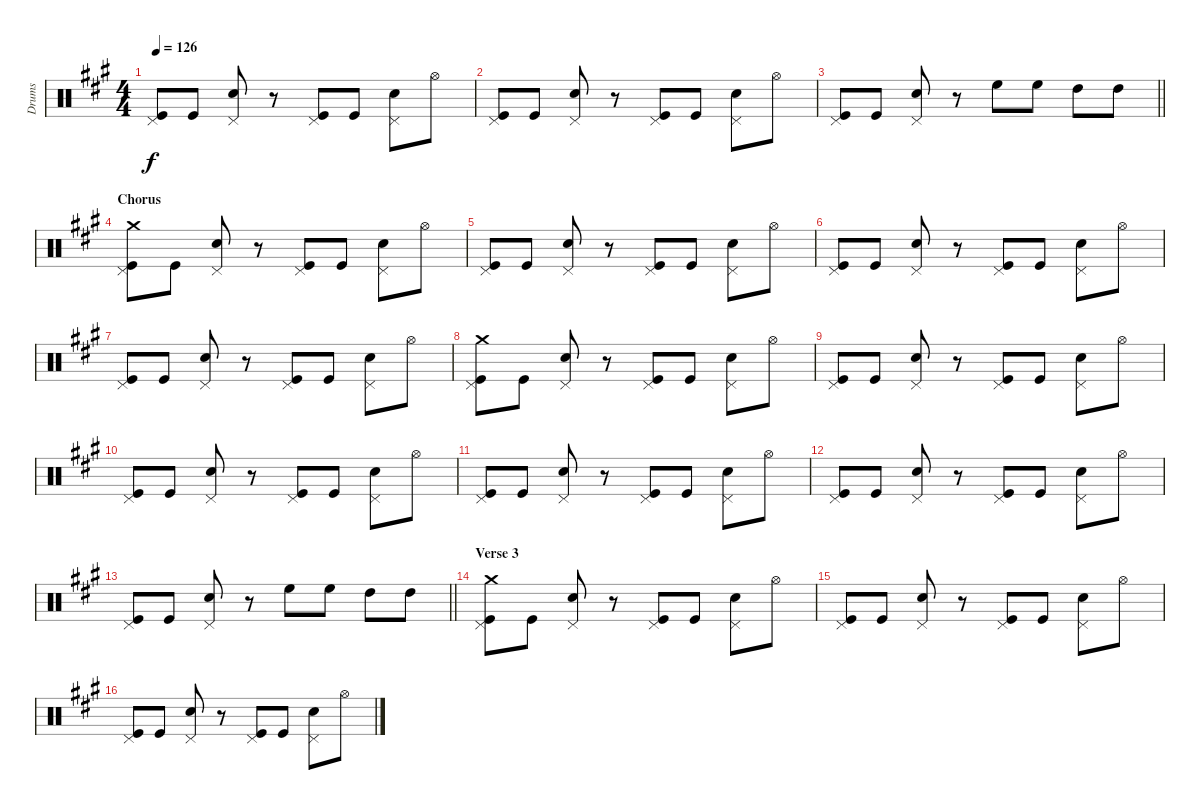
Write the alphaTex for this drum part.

\track ("Drums" "Drums") {instrument percussion}
\staff {score}
\articulation defaults
\ts (4 4)
\tempo 126
\clef neutral
\ks a
("Pedal Hi-Hat (hit)" "Kick (hit)").8{dy f} "Kick (hit)".8 ("Pedal Hi-Hat (hit)" "Snare (hit) 2").8 r.8 ("Pedal Hi-Hat (hit)" "Kick (hit)").8 "Kick (hit)".8 ("Pedal Hi-Hat (hit)" "Snare (hit) 2").8 "Hi-Hat (open)".8 |
("Pedal Hi-Hat (hit)" "Kick (hit)").8 "Kick (hit)".8 ("Pedal Hi-Hat (hit)" "Snare (hit) 2").8 r.8 ("Pedal Hi-Hat (hit)" "Kick (hit)").8 "Kick (hit)".8 ("Pedal Hi-Hat (hit)" "Snare (hit) 2").8 "Hi-Hat (open)".8 |
\barLineRight lightlight
("Pedal Hi-Hat (hit)" "Kick (hit)").8 "Kick (hit)".8 ("Pedal Hi-Hat (hit)" "Snare (hit) 2").8 r.8 "High Floor Tom (hit)".8 "High Floor Tom (hit)".8 "High Tom (hit)".8 "High Tom (hit)".8 |
\section ("" "Chorus")
("Crash medium (hit)" "Pedal Hi-Hat (hit)" "Kick (hit)").8 "Kick (hit)".8 ("Pedal Hi-Hat (hit)" "Snare (hit) 2").8 r.8 ("Pedal Hi-Hat (hit)" "Kick (hit)").8 "Kick (hit)".8 ("Pedal Hi-Hat (hit)" "Snare (hit) 2").8 "Hi-Hat (open)".8 |
("Pedal Hi-Hat (hit)" "Kick (hit)").8 "Kick (hit)".8 ("Pedal Hi-Hat (hit)" "Snare (hit) 2").8 r.8 ("Pedal Hi-Hat (hit)" "Kick (hit)").8 "Kick (hit)".8 ("Pedal Hi-Hat (hit)" "Snare (hit) 2").8 "Hi-Hat (open)".8 |
("Pedal Hi-Hat (hit)" "Kick (hit)").8 "Kick (hit)".8 ("Pedal Hi-Hat (hit)" "Snare (hit) 2").8 r.8 ("Pedal Hi-Hat (hit)" "Kick (hit)").8 "Kick (hit)".8 ("Pedal Hi-Hat (hit)" "Snare (hit) 2").8 "Hi-Hat (open)".8 |
("Pedal Hi-Hat (hit)" "Kick (hit)").8 "Kick (hit)".8 ("Pedal Hi-Hat (hit)" "Snare (hit) 2").8 r.8 ("Pedal Hi-Hat (hit)" "Kick (hit)").8 "Kick (hit)".8 ("Pedal Hi-Hat (hit)" "Snare (hit) 2").8 "Hi-Hat (open)".8 |
("Crash medium (hit)" "Pedal Hi-Hat (hit)" "Kick (hit)").8 "Kick (hit)".8 ("Pedal Hi-Hat (hit)" "Snare (hit) 2").8 r.8 ("Pedal Hi-Hat (hit)" "Kick (hit)").8 "Kick (hit)".8 ("Pedal Hi-Hat (hit)" "Snare (hit) 2").8 "Hi-Hat (open)".8 |
("Pedal Hi-Hat (hit)" "Kick (hit)").8 "Kick (hit)".8 ("Pedal Hi-Hat (hit)" "Snare (hit) 2").8 r.8 ("Pedal Hi-Hat (hit)" "Kick (hit)").8 "Kick (hit)".8 ("Pedal Hi-Hat (hit)" "Snare (hit) 2").8 "Hi-Hat (open)".8 |
("Pedal Hi-Hat (hit)" "Kick (hit)").8 "Kick (hit)".8 ("Pedal Hi-Hat (hit)" "Snare (hit) 2").8 r.8 ("Pedal Hi-Hat (hit)" "Kick (hit)").8 "Kick (hit)".8 ("Pedal Hi-Hat (hit)" "Snare (hit) 2").8 "Hi-Hat (open)".8 |
("Pedal Hi-Hat (hit)" "Kick (hit)").8 "Kick (hit)".8 ("Pedal Hi-Hat (hit)" "Snare (hit) 2").8 r.8 ("Pedal Hi-Hat (hit)" "Kick (hit)").8 "Kick (hit)".8 ("Pedal Hi-Hat (hit)" "Snare (hit) 2").8 "Hi-Hat (open)".8 |
("Pedal Hi-Hat (hit)" "Kick (hit)").8 "Kick (hit)".8 ("Pedal Hi-Hat (hit)" "Snare (hit) 2").8 r.8 ("Pedal Hi-Hat (hit)" "Kick (hit)").8 "Kick (hit)".8 ("Pedal Hi-Hat (hit)" "Snare (hit) 2").8 "Hi-Hat (open)".8 |
\barLineRight lightlight
("Pedal Hi-Hat (hit)" "Kick (hit)").8 "Kick (hit)".8 ("Pedal Hi-Hat (hit)" "Snare (hit) 2").8 r.8 "High Floor Tom (hit)".8 "High Floor Tom (hit)".8 "High Tom (hit)".8 "High Tom (hit)".8 |
\section ("" "Verse 3")
("Crash medium (hit)" "Pedal Hi-Hat (hit)" "Kick (hit)").8 "Kick (hit)".8 ("Pedal Hi-Hat (hit)" "Snare (hit) 2").8 r.8 ("Pedal Hi-Hat (hit)" "Kick (hit)").8 "Kick (hit)".8 ("Pedal Hi-Hat (hit)" "Snare (hit) 2").8 "Hi-Hat (open)".8 |
("Pedal Hi-Hat (hit)" "Kick (hit)").8 "Kick (hit)".8 ("Pedal Hi-Hat (hit)" "Snare (hit) 2").8 r.8 ("Pedal Hi-Hat (hit)" "Kick (hit)").8 "Kick (hit)".8 ("Pedal Hi-Hat (hit)" "Snare (hit) 2").8 "Hi-Hat (open)".8 |
("Pedal Hi-Hat (hit)" "Kick (hit)").8 "Kick (hit)".8 ("Pedal Hi-Hat (hit)" "Snare (hit) 2").8 r.8 ("Pedal Hi-Hat (hit)" "Kick (hit)").8 "Kick (hit)".8 ("Pedal Hi-Hat (hit)" "Snare (hit) 2").8 "Hi-Hat (open)".8
